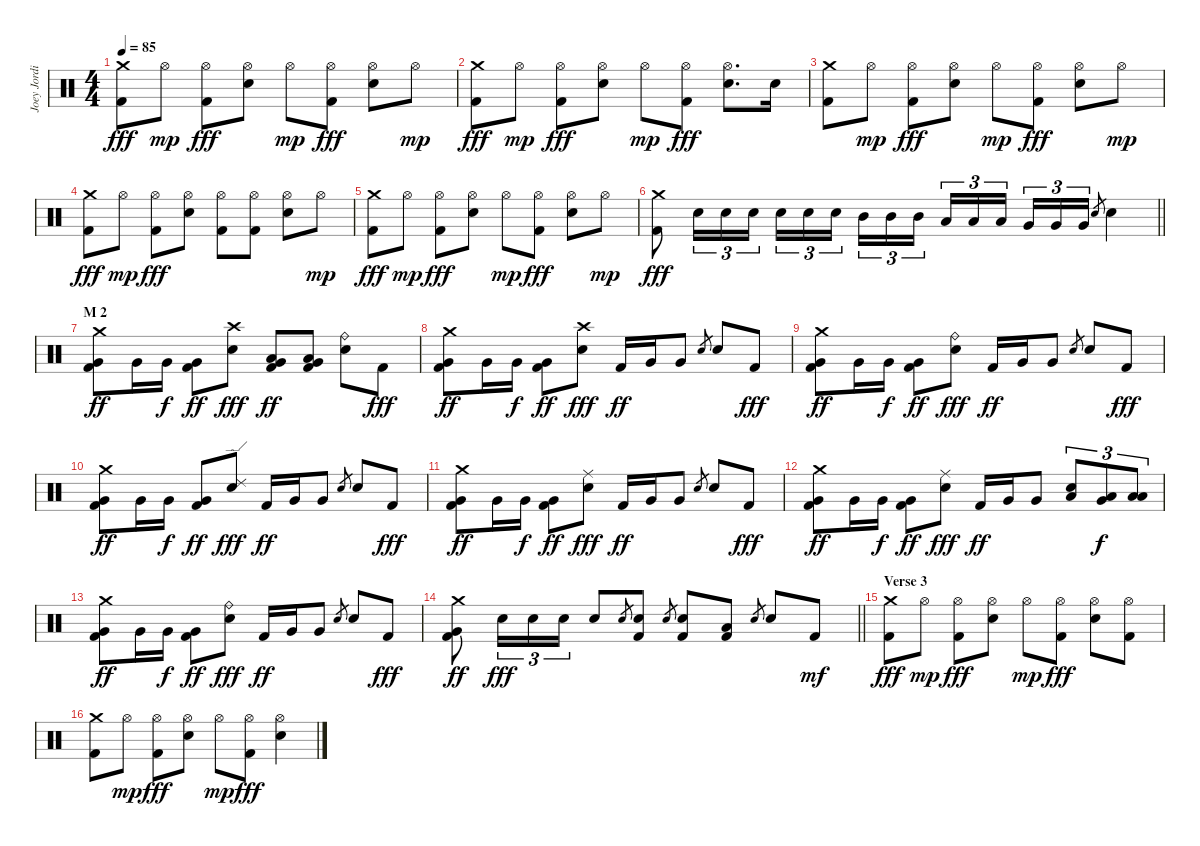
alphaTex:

\track ("Joey Jordison" "Joey Jordi") {instrument percussion}
\staff {score}
\articulation defaults
\ts (4 4)
\tempo 85
\clef neutral
\ks c
("Crash medium (hit)" "Kick (hit) 2").8{dy fff} "Hi-Hat (open)".8{dy mp} ("Hi-Hat (open)" "Kick (hit) 2").8{dy fff} ("Hi-Hat (open)" "Electric Snare (hit)").8 "Hi-Hat (open)".8{dy mp} ("Hi-Hat (open)" "Kick (hit) 2").8{dy fff} ("Hi-Hat (open)" "Electric Snare (hit)").8 "Hi-Hat (open)".8{dy mp} |
("Crash medium (hit)" "Kick (hit) 2").8{dy fff} "Hi-Hat (open)".8{dy mp} ("Hi-Hat (open)" "Kick (hit) 2").8{dy fff} ("Hi-Hat (open)" "Electric Snare (hit)").8 "Hi-Hat (open)".8{dy mp} ("Hi-Hat (open)" "Kick (hit) 2").8{dy fff} ("Hi-Hat (open)" "Electric Snare (hit)").8{d} "Electric Snare (hit)".16 |
("Crash medium (hit)" "Kick (hit) 2").8 "Hi-Hat (open)".8{dy mp} ("Hi-Hat (open)" "Kick (hit) 2").8{dy fff} ("Hi-Hat (open)" "Electric Snare (hit)").8 "Hi-Hat (open)".8{dy mp} ("Hi-Hat (open)" "Kick (hit) 2").8{dy fff} ("Hi-Hat (open)" "Electric Snare (hit)").8 "Hi-Hat (open)".8{dy mp} |
("Crash medium (hit)" "Kick (hit) 2").8{dy fff} "Hi-Hat (open)".8{dy mp} ("Hi-Hat (open)" "Kick (hit) 2").8{dy fff} ("Hi-Hat (open)" "Electric Snare (hit)").8 ("Hi-Hat (open)" "Kick (hit) 2").8 ("Hi-Hat (open)" "Kick (hit) 2").8 ("Hi-Hat (open)" "Electric Snare (hit)").8 "Hi-Hat (open)".8{dy mp} |
("Crash medium (hit)" "Kick (hit) 2").8{dy fff} "Hi-Hat (open)".8{dy mp} ("Hi-Hat (open)" "Kick (hit) 2").8{dy fff} ("Hi-Hat (open)" "Electric Snare (hit)").8 "Hi-Hat (open)".8{dy mp} ("Hi-Hat (open)" "Kick (hit) 2").8{dy fff} ("Hi-Hat (open)" "Electric Snare (hit)").8 "Hi-Hat (open)".8{dy mp} |
\barLineRight lightlight
("Crash medium (hit)" "Kick (hit) 2").8{dy fff} "Electric Snare (hit)".16{tu (3 2)} "Electric Snare (hit)".16{tu (3 2)} "Electric Snare (hit)".16{tu (3 2)} "Electric Snare (hit)".16{tu (3 2)} "Electric Snare (hit)".16{tu (3 2)} "Electric Snare (hit)".16{tu (3 2) beam splitsecondary} "Mid Tom (hit)".16{tu (3 2)} "Mid Tom (hit)".16{tu (3 2)} "Mid Tom (hit)".16{tu (3 2)} "Low Tom (hit)".16{tu (3 2)} "Low Tom (hit)".16{tu (3 2)} "Low Tom (hit)".16{tu (3 2) beam splitsecondary} "Very Low Tom (hit)".16{tu (3 2)} "Very Low Tom (hit)".16{tu (3 2)} "Very Low Tom (hit)".16{tu (3 2)} "Electric Snare (hit)".8{gr} "Electric Snare (hit)".4 |
\section ("" "M 2")
("Crash medium (hit)" "Very Low Tom (hit)" "Kick (hit) 2").8{dy ff} "Very Low Tom (hit)".16 "Very Low Tom (hit)".16{dy f} ("Very Low Tom (hit)" "Kick (hit) 2").8{dy ff} ("Crash high (hit)" "Electric Snare (hit)").8{dy fff} ("Very Low Tom (hit)" "Low Floor Tom (hit)" "Kick (hit) 2").8{dy ff} ("Very Low Tom (hit)" "Low Floor Tom (hit)" "Kick (hit) 2").8 ("Ride (bell)" "Electric Snare (hit)").8 "Kick (hit) 2".8{dy fff} |
("Crash medium (hit)" "Very Low Tom (hit)" "Kick (hit) 2").8{dy ff} "Very Low Tom (hit)".16 "Very Low Tom (hit)".16{dy f} ("Very Low Tom (hit)" "Kick (hit) 2").8{dy ff} ("Crash high (hit)" "Electric Snare (hit)").8{dy fff} "Kick (hit) 2".16{dy ff} "Very Low Tom (hit)".16 "Very Low Tom (hit)".8 "Electric Snare (hit)".8{gr} "Electric Snare (hit)".8 "Kick (hit) 2".8{dy fff} |
("Crash medium (hit)" "Very Low Tom (hit)" "Kick (hit) 2").8{dy ff} "Very Low Tom (hit)".16 "Very Low Tom (hit)".16{dy f} ("Very Low Tom (hit)" "Kick (hit) 2").8{dy ff} ("Ride (bell)" "Electric Snare (hit)").8{dy fff} "Kick (hit) 2".16{dy ff} "Very Low Tom (hit)".16 "Very Low Tom (hit)".8 "Electric Snare (hit)".8{gr} "Electric Snare (hit)".8 "Kick (hit) 2".8{dy fff} |
("Crash medium (hit)" "Very Low Tom (hit)" "Kick (hit) 2").8{dy ff} "Very Low Tom (hit)".16 "Very Low Tom (hit)".16{dy f} ("Very Low Tom (hit)" "Kick (hit) 2").8{dy ff} ("Ride (edge) 2" "Electric Snare (hit)").8{dy fff} "Kick (hit) 2".16{dy ff} "Very Low Tom (hit)".16 "Very Low Tom (hit)".8 "Electric Snare (hit)".8{gr} "Electric Snare (hit)".8 "Kick (hit) 2".8{dy fff} |
("Crash medium (hit)" "Very Low Tom (hit)" "Kick (hit) 2").8{dy ff} "Very Low Tom (hit)".16 "Very Low Tom (hit)".16{dy f} ("Very Low Tom (hit)" "Kick (hit) 2").8{dy ff} ("Ride (middle)" "Electric Snare (hit)").8{dy fff} "Kick (hit) 2".16{dy ff} "Very Low Tom (hit)".16 "Very Low Tom (hit)".8 "Electric Snare (hit)".8{gr} "Electric Snare (hit)".8 "Kick (hit) 2".8{dy fff} |
("Crash medium (hit)" "Very Low Tom (hit)" "Kick (hit) 2").8{dy ff} "Very Low Tom (hit)".16 "Very Low Tom (hit)".16{dy f} ("Very Low Tom (hit)" "Kick (hit) 2").8{dy ff} ("Ride (middle)" "Electric Snare (hit)").8{dy fff} "Kick (hit) 2".16{dy ff} "Very Low Tom (hit)".16 "Very Low Tom (hit)".8 ("Electric Snare (hit)" "Low Floor Tom (hit)").8{tu (3 2)} ("Very Low Tom (hit)" "Low Floor Tom (hit)").8{tu (3 2) dy f} ("Low Floor Tom (hit)" "Low Floor Tom (hit)").8{tu (3 2)} |
("Crash medium (hit)" "Very Low Tom (hit)" "Kick (hit) 2").8{dy ff} "Very Low Tom (hit)".16 "Very Low Tom (hit)".16{dy f} ("Very Low Tom (hit)" "Kick (hit) 2").8{dy ff} ("Ride (bell)" "Electric Snare (hit)").8{dy fff} "Kick (hit) 2".16{dy ff} "Very Low Tom (hit)".16 "Very Low Tom (hit)".8 "Electric Snare (hit)".8{gr} "Electric Snare (hit)".8 "Kick (hit) 2".8{dy fff} |
\barLineRight lightlight
("Crash medium (hit)" "Very Low Tom (hit)" "Kick (hit) 2").8{dy ff} "Electric Snare (hit)".16{tu (3 2) dy fff} "Electric Snare (hit)".16{tu (3 2)} "Electric Snare (hit)".16{tu (3 2)} "Electric Snare (hit)".8 "Electric Snare (hit)".8{gr} ("Electric Snare (hit)" "Kick (hit) 2").8 "Electric Snare (hit)".8{gr} ("Electric Snare (hit)" "Kick (hit) 2").8 ("Low Floor Tom (hit)" "Kick (hit) 2").8 "Electric Snare (hit)".8{gr} "Electric Snare (hit)".8 "Kick (hit) 2".8{dy mf} |
\section ("" "Verse 3")
("Crash medium (hit)" "Kick (hit) 2").8{dy fff} "Hi-Hat (open)".8{dy mp} ("Hi-Hat (open)" "Kick (hit) 2").8{dy fff} ("Hi-Hat (open)" "Electric Snare (hit)").8 "Hi-Hat (open)".8{dy mp} ("Hi-Hat (open)" "Kick (hit) 2").8{dy fff} ("Hi-Hat (open)" "Electric Snare (hit)").8 ("Hi-Hat (open)" "Kick (hit) 2").8 |
("Crash medium (hit)" "Kick (hit) 2").8 "Hi-Hat (open)".8{dy mp} ("Hi-Hat (open)" "Kick (hit) 2").8{dy fff} ("Hi-Hat (open)" "Electric Snare (hit)").8 "Hi-Hat (open)".8{dy mp} ("Hi-Hat (open)" "Kick (hit) 2").8{dy fff} ("Hi-Hat (open)" "Electric Snare (hit)").4
